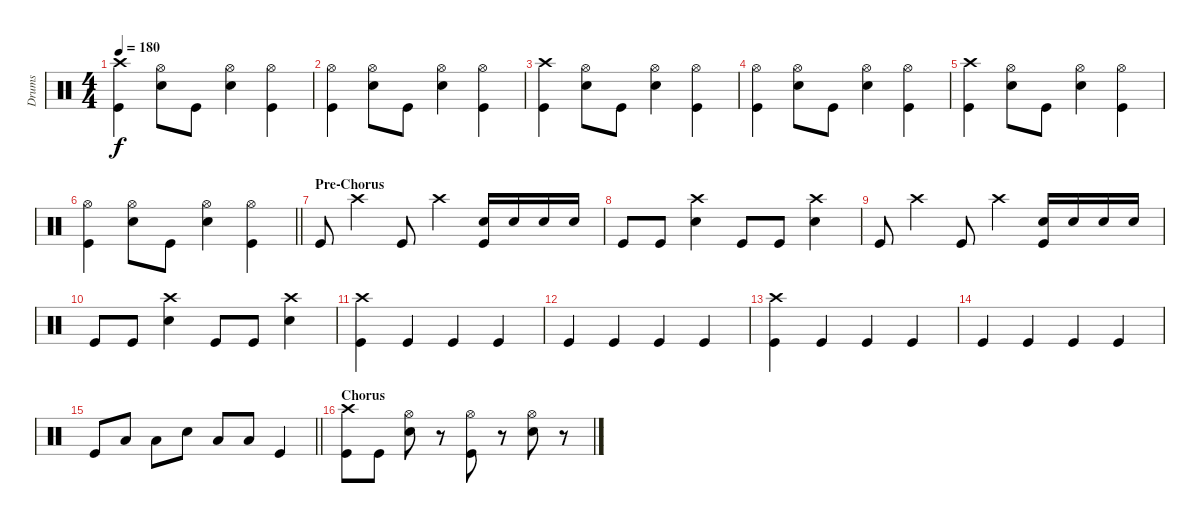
\track ("Drums" "Drums") {instrument percussion}
\staff {score}
\articulation defaults
\ts (4 4)
\tempo 180
\clef neutral
\ks c
("Crash high (hit)" "Kick (hit)").4{dy f} ("Hi-Hat (open)" "Snare (hit) 2").8 "Kick (hit)".8 ("Hi-Hat (open)" "Snare (hit) 2").4 ("Hi-Hat (open)" "Kick (hit)").4 |
("Hi-Hat (open)" "Kick (hit)").4 ("Hi-Hat (open)" "Snare (hit) 2").8 "Kick (hit)".8 ("Hi-Hat (open)" "Snare (hit) 2").4 ("Hi-Hat (open)" "Kick (hit)").4 |
("Crash high (hit)" "Kick (hit)").4 ("Hi-Hat (open)" "Snare (hit) 2").8 "Kick (hit)".8 ("Hi-Hat (open)" "Snare (hit) 2").4 ("Hi-Hat (open)" "Kick (hit)").4 |
("Hi-Hat (open)" "Kick (hit)").4 ("Hi-Hat (open)" "Snare (hit) 2").8 "Kick (hit)".8 ("Hi-Hat (open)" "Snare (hit) 2").4 ("Hi-Hat (open)" "Kick (hit)").4 |
("Crash high (hit)" "Kick (hit)").4 ("Hi-Hat (open)" "Snare (hit) 2").8 "Kick (hit)".8 ("Hi-Hat (open)" "Snare (hit) 2").4 ("Hi-Hat (open)" "Kick (hit)").4 |
\barLineRight lightlight
("Hi-Hat (open)" "Kick (hit)").4 ("Hi-Hat (open)" "Snare (hit) 2").8 "Kick (hit)".8 ("Hi-Hat (open)" "Snare (hit) 2").4 ("Hi-Hat (open)" "Kick (hit)").4 |
\section ("" "Pre-Chorus")
"Kick (hit)".8 "Crash high (hit)".4 "Kick (hit)".8 "Crash high (hit)".4 ("Snare (hit) 2" "Kick (hit)").16 "Snare (hit) 2".16 "Snare (hit) 2".16 "Snare (hit) 2".16 |
"Kick (hit)".8 "Kick (hit)".8 ("Crash high (hit)" "Snare (hit) 2").4 "Kick (hit)".8 "Kick (hit)".8 ("Crash high (hit)" "Snare (hit) 2").4 |
"Kick (hit)".8 "Crash high (hit)".4 "Kick (hit)".8 "Crash high (hit)".4 ("Snare (hit) 2" "Kick (hit)").16 "Snare (hit) 2".16 "Snare (hit) 2".16 "Snare (hit) 2".16 |
"Kick (hit)".8 "Kick (hit)".8 ("Crash high (hit)" "Snare (hit) 2").4 "Kick (hit)".8 "Kick (hit)".8 ("Crash high (hit)" "Snare (hit) 2").4 |
("Crash high (hit)" "Kick (hit)").4 "Kick (hit)".4 "Kick (hit)".4 "Kick (hit)".4 |
"Kick (hit)".4 "Kick (hit)".4 "Kick (hit)".4 "Kick (hit)".4 |
("Crash high (hit)" "Kick (hit)").4 "Kick (hit)".4 "Kick (hit)".4 "Kick (hit)".4 |
"Kick (hit)".4 "Kick (hit)".4 "Kick (hit)".4 "Kick (hit)".4 |
\barLineRight lightlight "Kick (hit)".8 "Low Tom (hit)".8 "Low Tom (hit)".8 "Snare (hit) 2".8 "Low Tom (hit)".8 "Low Tom (hit)".8 "Kick (hit)".4
|
\section ("" "Chorus")
("Crash high (hit)" "Kick (hit)").8 "Kick (hit)".8 ("Hi-Hat (open)" "Snare (hit) 2").8 r.8 ("Hi-Hat (open)" "Kick (hit)").8 r.8 ("Hi-Hat (open)" "Snare (hit) 2").8 r.8
